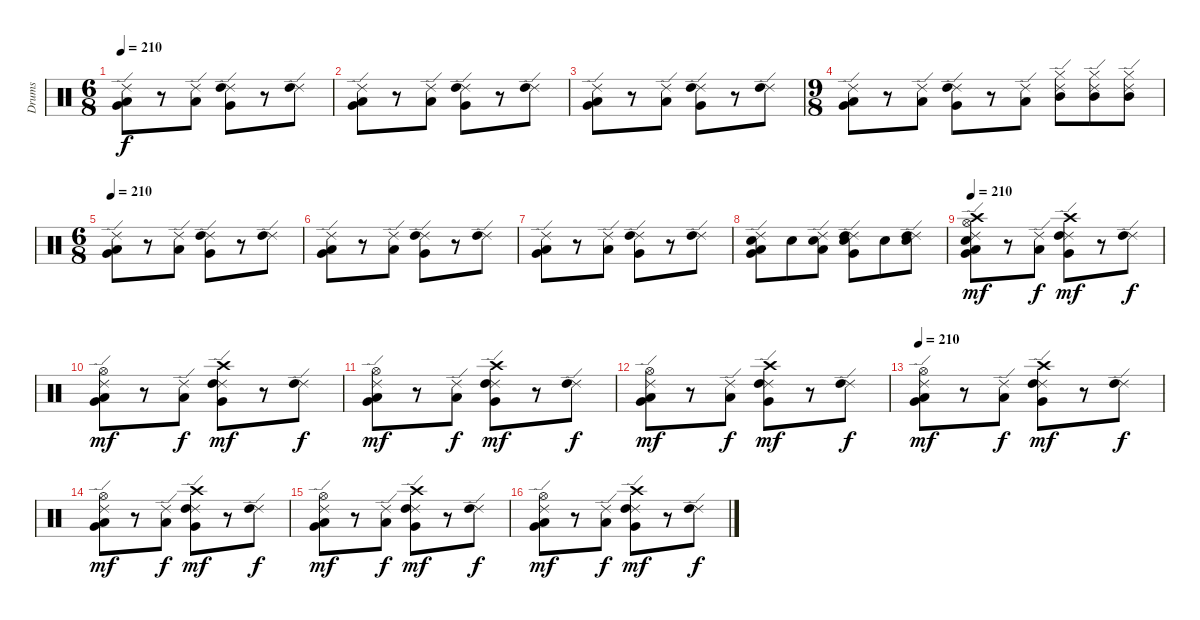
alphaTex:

\track ("Drums" "Drums") {instrument percussion}
\staff {score}
\articulation defaults
\ts (6 8)
\tempo 210
\clef neutral
\ks c
("Ride (edge) 2" "Low Tom (hit)" "Very Low Tom (hit)").8{dy f} r.8 ("Ride (edge) 2" "Low Tom (hit)").8 ("Ride (edge) 2" "High Tom (hit)" "Very Low Tom (hit)").8 r.8 ("Ride (edge) 2" "High Tom (hit)").8 |
("Ride (edge) 2" "Low Tom (hit)" "Very Low Tom (hit)").8 r.8 ("Ride (edge) 2" "Low Tom (hit)").8 ("Ride (edge) 2" "High Tom (hit)" "Very Low Tom (hit)").8 r.8 ("Ride (edge) 2" "High Tom (hit)").8 |
("Ride (edge) 2" "Low Tom (hit)" "Very Low Tom (hit)").8 r.8 ("Ride (edge) 2" "Low Tom (hit)").8 ("Ride (edge) 2" "High Tom (hit)" "Very Low Tom (hit)").8 r.8 ("Ride (edge) 2" "High Tom (hit)").8 |
\ts (9 8)
("Ride (edge) 2" "Low Tom (hit)" "Very Low Tom (hit)").8 r.8 ("Ride (edge) 2" "Low Tom (hit)").8 ("Ride (edge) 2" "High Tom (hit)" "Very Low Tom (hit)").8 r.8 ("Ride (edge) 2" "Low Tom (hit)").8 ("Ride (edge) 2" "Hi-Hat (closed)" "Mid Tom (hit)").8 ("Ride (edge) 2" "Hi-Hat (closed)" "Mid Tom (hit)").8 ("Ride (edge) 2" "Hi-Hat (closed)" "Mid Tom (hit)").8 |
\ts (6 8)
\tempo 210
("Ride (edge) 2" "Low Tom (hit)" "Very Low Tom (hit)").8 r.8 ("Ride (edge) 2" "Low Tom (hit)").8 ("Ride (edge) 2" "High Tom (hit)" "Very Low Tom (hit)").8 r.8 ("Ride (edge) 2" "High Tom (hit)").8 |
("Ride (edge) 2" "Low Tom (hit)" "Very Low Tom (hit)").8 r.8 ("Ride (edge) 2" "Low Tom (hit)").8 ("Ride (edge) 2" "High Tom (hit)" "Very Low Tom (hit)").8 r.8 ("Ride (edge) 2" "High Tom (hit)").8 |
("Ride (edge) 2" "Low Tom (hit)" "Very Low Tom (hit)").8 r.8 ("Ride (edge) 2" "Low Tom (hit)").8 ("Ride (edge) 2" "High Tom (hit)" "Very Low Tom (hit)").8 r.8 ("Ride (edge) 2" "High Tom (hit)").8 |
("Ride (edge) 2" "Electric Snare (hit)" "Low Tom (hit)" "Very Low Tom (hit)").8 "Electric Snare (hit)".8 ("Ride (edge) 2" "Electric Snare (hit)" "Low Tom (hit)").8 ("Ride (edge) 2" "Snare (hit) 2" "High Tom (hit)" "Very Low Tom (hit)").8 "Snare (hit) 2".8 ("Ride (edge) 2" "Snare (hit) 2" "High Tom (hit)").8 |
\tempo 210
("Ride (edge) 2" "Hi-Hat (open)" "Electric Snare (hit)" "Crash high (hit)" "Low Tom (hit)" "Very Low Tom (hit)").8{dy mf} r.8 ("Ride (edge) 2" "Low Tom (hit)").8{dy f} ("Ride (edge) 2" "Crash high (hit)" "High Tom (hit)" "Very Low Tom (hit)").8{dy mf} r.8 ("Ride (edge) 2" "High Tom (hit)").8{dy f} |
("Ride (edge) 2" "Hi-Hat (open)" "Low Tom (hit)" "Very Low Tom (hit)").8{dy mf} r.8 ("Ride (edge) 2" "Low Tom (hit)").8{dy f} ("Ride (edge) 2" "Crash high (hit)" "High Tom (hit)" "Very Low Tom (hit)").8{dy mf} r.8 ("Ride (edge) 2" "High Tom (hit)").8{dy f} |
("Ride (edge) 2" "Hi-Hat (open)" "Low Tom (hit)" "Very Low Tom (hit)").8{dy mf} r.8 ("Ride (edge) 2" "Low Tom (hit)").8{dy f} ("Ride (edge) 2" "Crash high (hit)" "High Tom (hit)" "Very Low Tom (hit)").8{dy mf} r.8 ("Ride (edge) 2" "High Tom (hit)").8{dy f} |
("Ride (edge) 2" "Hi-Hat (open)" "Low Tom (hit)" "Very Low Tom (hit)").8{dy mf} r.8 ("Ride (edge) 2" "Low Tom (hit)").8{dy f} ("Ride (edge) 2" "Crash high (hit)" "High Tom (hit)" "Very Low Tom (hit)").8{dy mf} r.8 ("Ride (edge) 2" "High Tom (hit)").8{dy f} |
\tempo 210
("Ride (edge) 2" "Hi-Hat (open)" "Low Tom (hit)" "Very Low Tom (hit)").8{dy mf} r.8 ("Ride (edge) 2" "Low Tom (hit)").8{dy f} ("Ride (edge) 2" "Crash high (hit)" "High Tom (hit)" "Very Low Tom (hit)").8{dy mf} r.8 ("Ride (edge) 2" "High Tom (hit)").8{dy f} |
("Ride (edge) 2" "Hi-Hat (open)" "Low Tom (hit)" "Very Low Tom (hit)").8{dy mf} r.8 ("Ride (edge) 2" "Low Tom (hit)").8{dy f} ("Ride (edge) 2" "Crash high (hit)" "High Tom (hit)" "Very Low Tom (hit)").8{dy mf} r.8 ("Ride (edge) 2" "High Tom (hit)").8{dy f} |
("Ride (edge) 2" "Hi-Hat (open)" "Low Tom (hit)" "Very Low Tom (hit)").8{dy mf} r.8 ("Ride (edge) 2" "Low Tom (hit)").8{dy f} ("Ride (edge) 2" "Crash high (hit)" "High Tom (hit)" "Very Low Tom (hit)").8{dy mf} r.8 ("Ride (edge) 2" "High Tom (hit)").8{dy f} |
("Ride (edge) 2" "Hi-Hat (open)" "Low Tom (hit)" "Very Low Tom (hit)").8{dy mf} r.8 ("Ride (edge) 2" "Low Tom (hit)").8{dy f} ("Ride (edge) 2" "Crash high (hit)" "High Tom (hit)" "Very Low Tom (hit)").8{dy mf} r.8 ("Ride (edge) 2" "High Tom (hit)").8{dy f}
